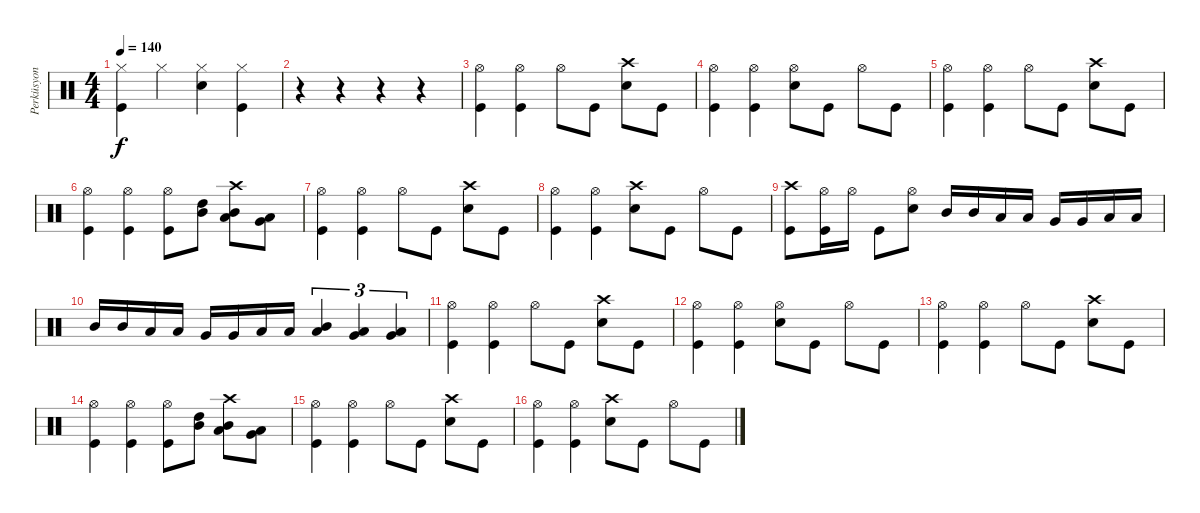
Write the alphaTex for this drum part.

\track ("Perküsyon" "Perküsyon") {instrument percussion}
\staff {score}
\articulation defaults
\ts (4 4)
\tempo 140
\clef neutral
\ks c
("Hi-Hat (closed)" "Kick (hit)").4{dy f} "Hi-Hat (closed)".4 ("Hi-Hat (closed)" "Snare (hit) 2").4 ("Hi-Hat (closed)" "Kick (hit)").4 |
r.4 r.4 r.4 r.4 |
("Hi-Hat (open)" "Kick (hit)").4 ("Hi-Hat (open)" "Kick (hit)").4 "Hi-Hat (open)".8 "Kick (hit)".8 ("Crash high (hit)" "Snare (hit) 2").8 "Kick (hit)".8 |
("Hi-Hat (open)" "Kick (hit)").4 ("Hi-Hat (open)" "Kick (hit)").4 ("Hi-Hat (open)" "Snare (hit) 2").8 "Kick (hit)".8 "Hi-Hat (open)".8 "Kick (hit)".8 |
("Hi-Hat (open)" "Kick (hit)").4 ("Hi-Hat (open)" "Kick (hit)").4 "Hi-Hat (open)".8 "Kick (hit)".8 ("Crash high (hit)" "Snare (hit) 2").8 "Kick (hit)".8 |
("Hi-Hat (open)" "Kick (hit)").4 ("Hi-Hat (open)" "Kick (hit)").4 ("Hi-Hat (open)" "Kick (hit)").8 ("Mid Tom (hit)" "High Tom (hit)").8 ("Crash high (hit)" "Low Tom (hit)" "Mid Tom (hit)").8 ("Very Low Tom (hit)" "Low Tom (hit)").8 |
("Hi-Hat (open)" "Kick (hit)").4 ("Hi-Hat (open)" "Kick (hit)").4 "Hi-Hat (open)".8 "Kick (hit)".8 ("Crash high (hit)" "Snare (hit) 2").8 "Kick (hit)".8 |
("Hi-Hat (open)" "Kick (hit)").4 ("Hi-Hat (open)" "Kick (hit)").4 ("Crash high (hit)" "Snare (hit) 2").8 "Kick (hit)".8 "Hi-Hat (open)".8 "Kick (hit)".8 |
("Crash high (hit)" "Kick (hit)").8 ("Hi-Hat (open)" "Kick (hit)").16 "Hi-Hat (open)".16 "Kick (hit)".8 ("Hi-Hat (open)" "Snare (hit) 2").8 "Mid Tom (hit)".16 "Mid Tom (hit)".16 "Low Tom (hit)".16 "Low Tom (hit)".16 "Very Low Tom (hit)".16 "Very Low Tom (hit)".16 "Low Floor Tom (hit)".16 "Low Floor Tom (hit)".16 |
"Mid Tom (hit)".16 "Mid Tom (hit)".16 "Low Tom (hit)".16 "Low Tom (hit)".16 "Very Low Tom (hit)".16 "Very Low Tom (hit)".16 "Low Floor Tom (hit)".16 "Low Floor Tom (hit)".16 ("Low Tom (hit)" "Mid Tom (hit)").4{tu (3 2)} ("Very Low Tom (hit)" "Low Tom (hit)").4{tu (3 2)} ("Low Floor Tom (hit)" "Very Low Tom (hit)").4{tu (3 2)} |
("Hi-Hat (open)" "Kick (hit)").4 ("Hi-Hat (open)" "Kick (hit)").4 "Hi-Hat (open)".8 "Kick (hit)".8 ("Crash high (hit)" "Snare (hit) 2").8 "Kick (hit)".8 |
("Hi-Hat (open)" "Kick (hit)").4 ("Hi-Hat (open)" "Kick (hit)").4 ("Hi-Hat (open)" "Snare (hit) 2").8 "Kick (hit)".8 "Hi-Hat (open)".8 "Kick (hit)".8 |
("Hi-Hat (open)" "Kick (hit)").4 ("Hi-Hat (open)" "Kick (hit)").4 "Hi-Hat (open)".8 "Kick (hit)".8 ("Crash high (hit)" "Snare (hit) 2").8 "Kick (hit)".8 |
("Hi-Hat (open)" "Kick (hit)").4 ("Hi-Hat (open)" "Kick (hit)").4 ("Hi-Hat (open)" "Kick (hit)").8 ("Mid Tom (hit)" "High Tom (hit)").8 ("Crash high (hit)" "Low Tom (hit)" "Mid Tom (hit)").8 ("Very Low Tom (hit)" "Low Tom (hit)").8 |
("Hi-Hat (open)" "Kick (hit)").4 ("Hi-Hat (open)" "Kick (hit)").4 "Hi-Hat (open)".8 "Kick (hit)".8 ("Crash high (hit)" "Snare (hit) 2").8 "Kick (hit)".8 |
("Hi-Hat (open)" "Kick (hit)").4 ("Hi-Hat (open)" "Kick (hit)").4 ("Crash high (hit)" "Snare (hit) 2").8 "Kick (hit)".8 "Hi-Hat (open)".8 "Kick (hit)".8
